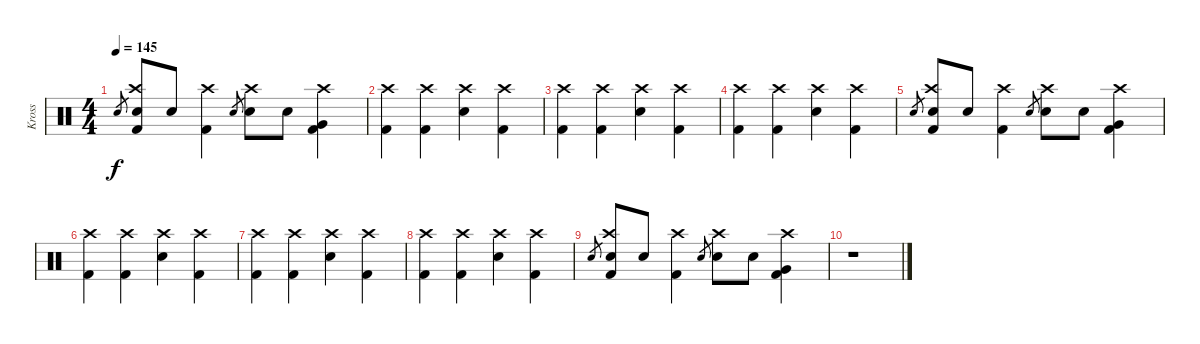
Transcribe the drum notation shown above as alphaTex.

\track ("Kross" "Kross") {instrument percussion}
\staff {score}
\articulation defaults
\ts (4 4)
\tempo 145
\clef neutral
\ks c "Electric Snare (hit)".8{gr dy f}
("Crash high (hit)" "Electric Snare (hit)" "Kick (hit) 2").8 "Electric Snare (hit)".8 ("Crash high (hit)" "Kick (hit) 2").4 "Electric Snare (hit)".8{gr} ("Crash high (hit)" "Electric Snare (hit)").8 "Electric Snare (hit)".8 ("Crash high (hit)" "Very Low Tom (hit)" "Kick (hit) 2").4 |
("Crash high (hit)" "Kick (hit) 2").4 ("Crash high (hit)" "Kick (hit) 2").4 ("Crash high (hit)" "Electric Snare (hit)").4 ("Crash high (hit)" "Kick (hit) 2").4 |
("Crash high (hit)" "Kick (hit) 2").4 ("Crash high (hit)" "Kick (hit) 2").4 ("Crash high (hit)" "Electric Snare (hit)").4 ("Crash high (hit)" "Kick (hit) 2").4 |
("Crash high (hit)" "Kick (hit) 2").4 ("Crash high (hit)" "Kick (hit) 2").4 ("Crash high (hit)" "Electric Snare (hit)").4 ("Crash high (hit)" "Kick (hit) 2").4 |
"Electric Snare (hit)".8{gr} ("Crash high (hit)" "Electric Snare (hit)" "Kick (hit) 2").8 "Electric Snare (hit)".8 ("Crash high (hit)" "Kick (hit) 2").4 "Electric Snare (hit)".8{gr} ("Crash high (hit)" "Electric Snare (hit)").8 "Electric Snare (hit)".8 ("Crash high (hit)" "Very Low Tom (hit)" "Kick (hit) 2").4 |
("Crash high (hit)" "Kick (hit) 2").4{volume 0} ("Crash high (hit)" "Kick (hit) 2").4 ("Crash high (hit)" "Electric Snare (hit)").4 ("Crash high (hit)" "Kick (hit) 2").4 |
("Crash high (hit)" "Kick (hit) 2").4 ("Crash high (hit)" "Kick (hit) 2").4 ("Crash high (hit)" "Electric Snare (hit)").4 ("Crash high (hit)" "Kick (hit) 2").4 |
("Crash high (hit)" "Kick (hit) 2").4 ("Crash high (hit)" "Kick (hit) 2").4 ("Crash high (hit)" "Electric Snare (hit)").4 ("Crash high (hit)" "Kick (hit) 2").4 |
"Electric Snare (hit)".8{gr} ("Crash high (hit)" "Electric Snare (hit)" "Kick (hit) 2").8 "Electric Snare (hit)".8 ("Crash high (hit)" "Kick (hit) 2").4 "Electric Snare (hit)".8{gr} ("Crash high (hit)" "Electric Snare (hit)").8 "Electric Snare (hit)".8 ("Crash high (hit)" "Very Low Tom (hit)" "Kick (hit) 2").4 |
r.1
